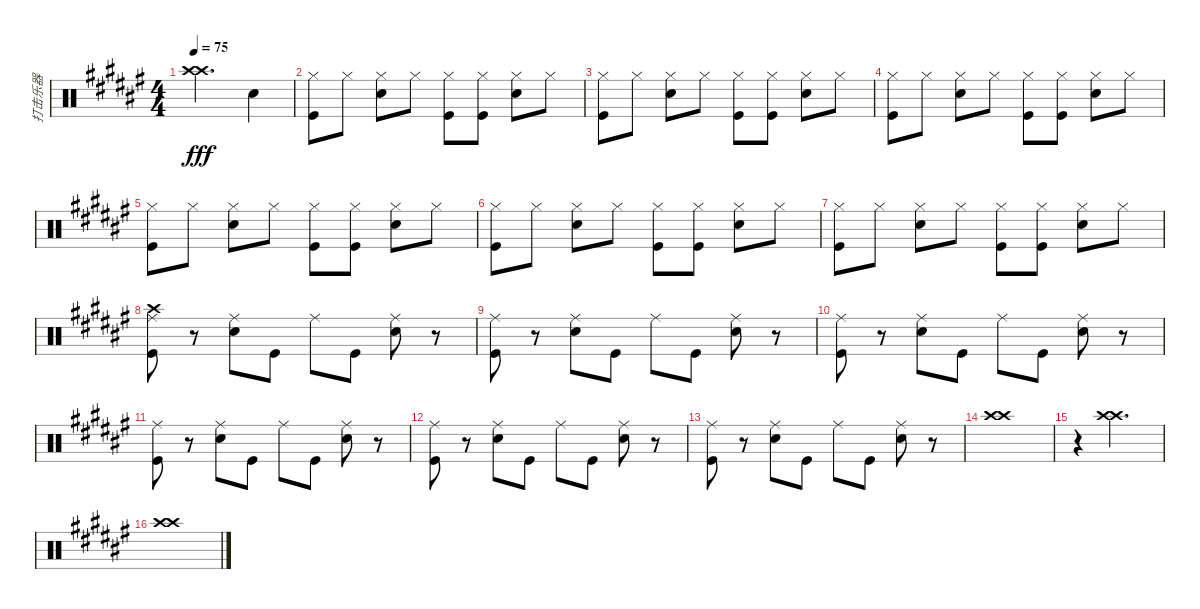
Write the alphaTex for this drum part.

\track ("打击乐器" "打击乐器") {instrument percussion}
\staff {score}
\articulation defaults
\ts (4 4)
\tempo 75
\clef neutral
\ks f#
("Crash high (hit)" "Crash high (hit)").2{d dy fff} "Snare (hit) 2".4 |
("Kick (hit)" "Hi-Hat (closed)").8 "Hi-Hat (closed)".8 ("Snare (hit) 2" "Hi-Hat (closed)").8 "Hi-Hat (closed)".8 ("Hi-Hat (closed)" "Kick (hit)").8 ("Kick (hit)" "Hi-Hat (closed)").8 ("Snare (hit) 2" "Hi-Hat (closed)").8 "Hi-Hat (closed)".8 |
("Kick (hit)" "Hi-Hat (closed)").8 "Hi-Hat (closed)".8 ("Snare (hit) 2" "Hi-Hat (closed)").8 "Hi-Hat (closed)".8 ("Hi-Hat (closed)" "Kick (hit)").8 ("Kick (hit)" "Hi-Hat (closed)").8 ("Snare (hit) 2" "Hi-Hat (closed)").8 "Hi-Hat (closed)".8 |
("Kick (hit)" "Hi-Hat (closed)").8 "Hi-Hat (closed)".8 ("Snare (hit) 2" "Hi-Hat (closed)").8 "Hi-Hat (closed)".8 ("Hi-Hat (closed)" "Kick (hit)").8 ("Kick (hit)" "Hi-Hat (closed)").8 ("Snare (hit) 2" "Hi-Hat (closed)").8 "Hi-Hat (closed)".8 |
("Kick (hit)" "Hi-Hat (closed)").8 "Hi-Hat (closed)".8 ("Snare (hit) 2" "Hi-Hat (closed)").8 "Hi-Hat (closed)".8 ("Hi-Hat (closed)" "Kick (hit)").8 ("Kick (hit)" "Hi-Hat (closed)").8 ("Snare (hit) 2" "Hi-Hat (closed)").8 "Hi-Hat (closed)".8 |
("Kick (hit)" "Hi-Hat (closed)").8 "Hi-Hat (closed)".8 ("Snare (hit) 2" "Hi-Hat (closed)").8 "Hi-Hat (closed)".8 ("Hi-Hat (closed)" "Kick (hit)").8 ("Kick (hit)" "Hi-Hat (closed)").8 ("Snare (hit) 2" "Hi-Hat (closed)").8 "Hi-Hat (closed)".8 |
("Kick (hit)" "Hi-Hat (closed)").8 "Hi-Hat (closed)".8 ("Snare (hit) 2" "Hi-Hat (closed)").8 "Hi-Hat (closed)".8 ("Hi-Hat (closed)" "Kick (hit)").8 ("Kick (hit)" "Hi-Hat (closed)").8 ("Snare (hit) 2" "Hi-Hat (closed)").8 "Hi-Hat (closed)".8 |
("Ride (middle)" "Kick (hit)" "Crash high (hit)").8 r.8 ("Ride (middle)" "Snare (hit) 2").8 "Kick (hit)".8 "Ride (middle)".8 "Kick (hit)".8 ("Ride (middle)" "Snare (hit) 2").8 r.8 |
("Ride (middle)" "Kick (hit)").8 r.8 ("Ride (middle)" "Snare (hit) 2").8 "Kick (hit)".8 "Ride (middle)".8 "Kick (hit)".8 ("Ride (middle)" "Snare (hit) 2").8 r.8 |
("Ride (middle)" "Kick (hit)").8 r.8 ("Ride (middle)" "Snare (hit) 2").8 "Kick (hit)".8 "Ride (middle)".8 "Kick (hit)".8 ("Ride (middle)" "Snare (hit) 2").8 r.8 |
("Ride (middle)" "Kick (hit)").8 r.8 ("Ride (middle)" "Snare (hit) 2").8 "Kick (hit)".8 "Ride (middle)".8 "Kick (hit)".8 ("Ride (middle)" "Snare (hit) 2").8 r.8 |
("Ride (middle)" "Kick (hit)").8 r.8 ("Ride (middle)" "Snare (hit) 2").8 "Kick (hit)".8 "Ride (middle)".8 "Kick (hit)".8 ("Ride (middle)" "Snare (hit) 2").8 r.8 |
("Ride (middle)" "Kick (hit)").8 r.8 ("Ride (middle)" "Snare (hit) 2").8 "Kick (hit)".8 "Ride (middle)".8 "Kick (hit)".8 ("Ride (middle)" "Snare (hit) 2").8 r.8 |
("Crash high (hit)" "Crash high (hit)").1 |
r.4 ("Crash high (hit)" "Crash high (hit)").2{d} |
("Crash high (hit)" "Crash high (hit)").1
